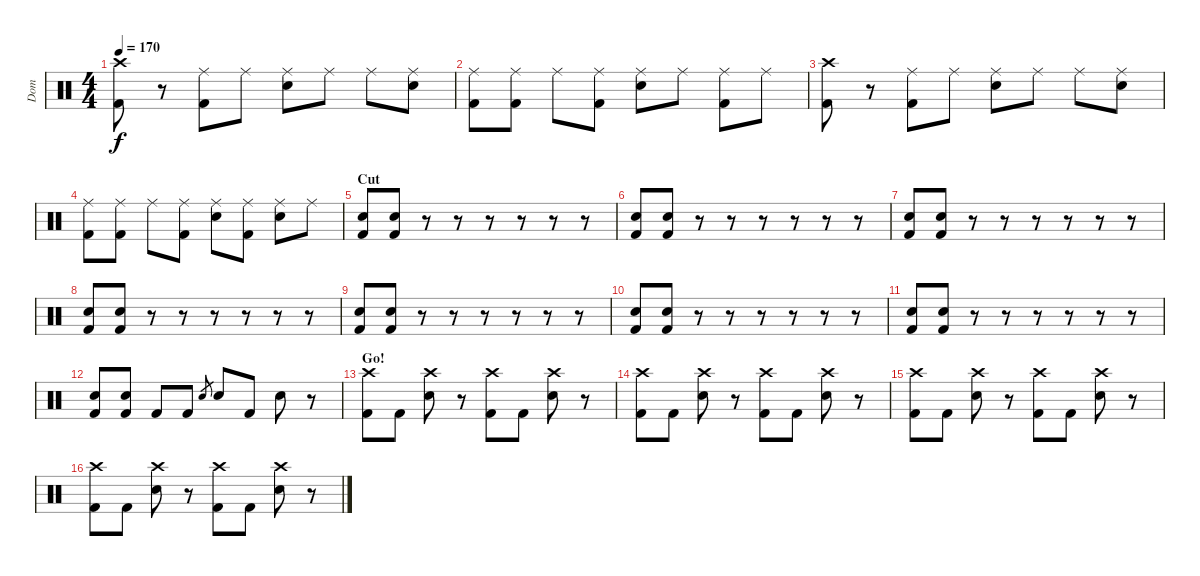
\track ("Dom" "Dom") {instrument percussion}
\staff {score}
\articulation defaults
\ts (4 4)
\tempo 170
\clef neutral
\ks c
("Crash high (hit)" "Kick (hit) 2").8{dy f} r.8 ("Ride (middle)" "Kick (hit) 2").8 "Ride (middle)".8 ("Ride (middle)" "Electric Snare (hit)").8 "Ride (middle)".8 "Ride (middle)".8 ("Ride (middle)" "Electric Snare (hit)").8 |
("Ride (middle)" "Kick (hit) 2").8 ("Ride (middle)" "Kick (hit) 2").8 "Ride (middle)".8 ("Ride (middle)" "Kick (hit) 2").8 ("Ride (middle)" "Electric Snare (hit)").8 "Ride (middle)".8 ("Ride (middle)" "Kick (hit) 2").8 "Ride (middle)".8 |
("Crash high (hit)" "Kick (hit) 2").8 r.8 ("Ride (middle)" "Kick (hit) 2").8 "Ride (middle)".8 ("Ride (middle)" "Electric Snare (hit)").8 "Ride (middle)".8 "Ride (middle)".8 ("Ride (middle)" "Electric Snare (hit)").8 |
("Ride (middle)" "Kick (hit) 2").8 ("Ride (middle)" "Kick (hit) 2").8 "Ride (middle)".8 ("Ride (middle)" "Kick (hit) 2").8 ("Ride (middle)" "Electric Snare (hit)").8 ("Ride (middle)" "Kick (hit) 2").8 ("Ride (middle)" "Electric Snare (hit)").8 "Ride (middle)".8 |
\section ("" "Cut")
("Electric Snare (hit)" "Kick (hit) 2").8 ("Electric Snare (hit)" "Kick (hit) 2").8 r.8 r.8 r.8 r.8 r.8 r.8 |
("Electric Snare (hit)" "Kick (hit) 2").8 ("Electric Snare (hit)" "Kick (hit) 2").8 r.8 r.8 r.8 r.8 r.8 r.8 |
("Electric Snare (hit)" "Kick (hit) 2").8 ("Electric Snare (hit)" "Kick (hit) 2").8 r.8 r.8 r.8 r.8 r.8 r.8 |
("Electric Snare (hit)" "Kick (hit) 2").8 ("Electric Snare (hit)" "Kick (hit) 2").8 r.8 r.8 r.8 r.8 r.8 r.8 |
("Electric Snare (hit)" "Kick (hit) 2").8 ("Electric Snare (hit)" "Kick (hit) 2").8 r.8 r.8 r.8 r.8 r.8 r.8 |
("Electric Snare (hit)" "Kick (hit) 2").8 ("Electric Snare (hit)" "Kick (hit) 2").8 r.8 r.8 r.8 r.8 r.8 r.8 |
("Electric Snare (hit)" "Kick (hit) 2").8 ("Electric Snare (hit)" "Kick (hit) 2").8 r.8 r.8 r.8 r.8 r.8 r.8 |
("Electric Snare (hit)" "Kick (hit) 2").8 ("Electric Snare (hit)" "Kick (hit) 2").8 "Kick (hit) 2".8 "Kick (hit) 2".8 "Electric Snare (hit)".8{gr} "Electric Snare (hit)".8 "Kick (hit) 2".8 "Electric Snare (hit)".8 r.8 |
\section ("" "Go!")
("Crash high (hit)" "Kick (hit) 2").8 "Kick (hit) 2".8 ("Crash high (hit)" "Electric Snare (hit)").8 r.8 ("Crash high (hit)" "Kick (hit) 2").8 "Kick (hit) 2".8 ("Crash high (hit)" "Electric Snare (hit)").8 r.8 |
("Crash high (hit)" "Kick (hit) 2").8 "Kick (hit) 2".8 ("Crash high (hit)" "Electric Snare (hit)").8 r.8 ("Crash high (hit)" "Kick (hit) 2").8 "Kick (hit) 2".8 ("Crash high (hit)" "Electric Snare (hit)").8 r.8 |
("Crash high (hit)" "Kick (hit) 2").8 "Kick (hit) 2".8 ("Crash high (hit)" "Electric Snare (hit)").8 r.8 ("Crash high (hit)" "Kick (hit) 2").8 "Kick (hit) 2".8 ("Crash high (hit)" "Electric Snare (hit)").8 r.8 |
("Crash high (hit)" "Kick (hit) 2").8 "Kick (hit) 2".8 ("Crash high (hit)" "Electric Snare (hit)").8 r.8 ("Crash high (hit)" "Kick (hit) 2").8 "Kick (hit) 2".8 ("Crash high (hit)" "Electric Snare (hit)").8 r.8
